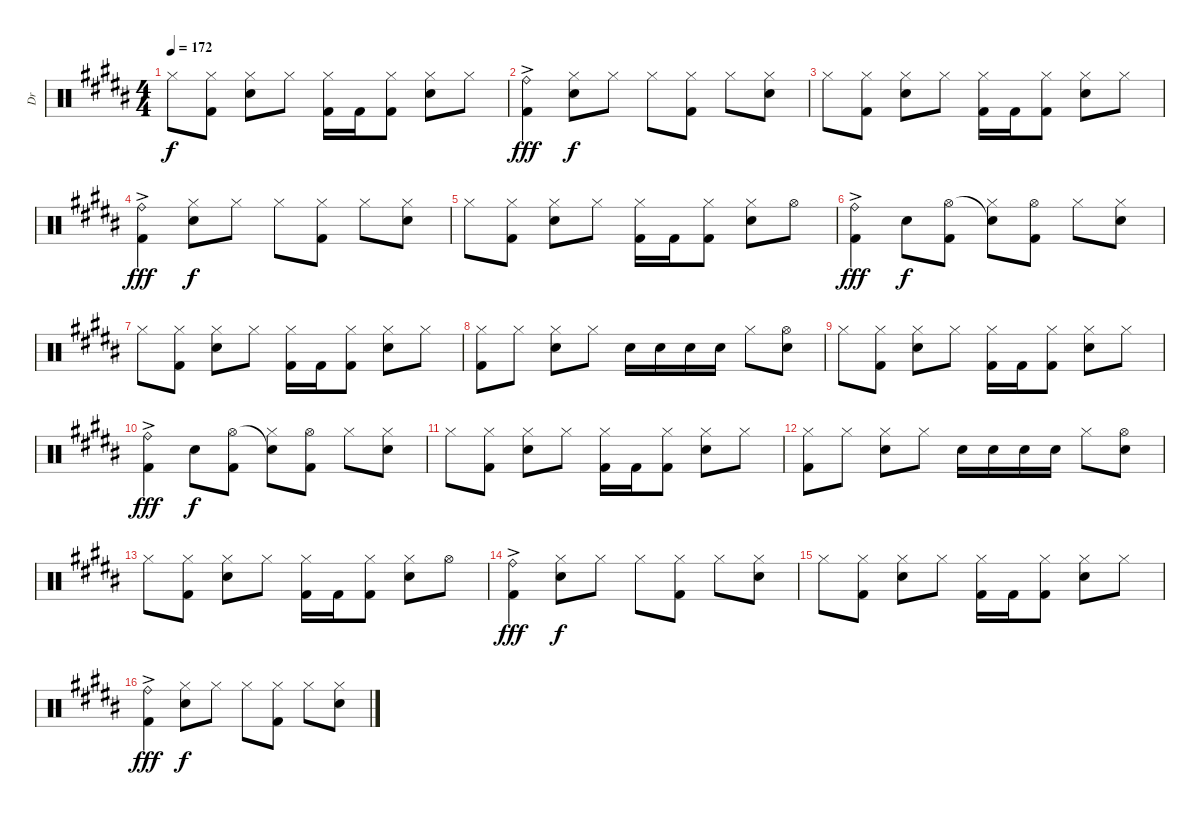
\track ("Dr" "Dr") {instrument percussion}
\staff {score}
\articulation defaults
\ts (4 4)
\tempo 172
\clef neutral
\ks b "Hi-Hat (closed)".8{dy f}
("Hi-Hat (closed)" "Kick (hit) 2").8 ("Hi-Hat (closed)" "Electric Snare (hit)").8 "Hi-Hat (closed)".8 ("Hi-Hat (closed)" "Kick (hit) 2").16 "Kick (hit) 2".16 ("Hi-Hat (closed)" "Kick (hit) 2").8 ("Hi-Hat (closed)" "Electric Snare (hit)").8 "Hi-Hat (closed)".8 |
("Ride (bell)"{ac} "Kick (hit) 2"{ac}).4{dy fff} ("Hi-Hat (closed)" "Electric Snare (hit)").8{dy f} "Hi-Hat (closed)".8 "Hi-Hat (closed)".8 ("Hi-Hat (closed)" "Kick (hit) 2").8 "Hi-Hat (closed)".8 ("Hi-Hat (closed)" "Electric Snare (hit)").8 |
"Hi-Hat (closed)".8 ("Hi-Hat (closed)" "Kick (hit) 2").8 ("Hi-Hat (closed)" "Electric Snare (hit)").8 "Hi-Hat (closed)".8 ("Hi-Hat (closed)" "Kick (hit) 2").16 "Kick (hit) 2".16 ("Hi-Hat (closed)" "Kick (hit) 2").8 ("Hi-Hat (closed)" "Electric Snare (hit)").8 "Hi-Hat (closed)".8 |
("Ride (bell)"{ac} "Kick (hit) 2"{ac}).4{dy fff} ("Hi-Hat (closed)" "Electric Snare (hit)").8{dy f} "Hi-Hat (closed)".8 "Hi-Hat (closed)".8 ("Hi-Hat (closed)" "Kick (hit) 2").8 "Hi-Hat (closed)".8 ("Hi-Hat (closed)" "Electric Snare (hit)").8 |
"Hi-Hat (closed)".8 ("Hi-Hat (closed)" "Kick (hit) 2").8 ("Hi-Hat (closed)" "Electric Snare (hit)").8 "Hi-Hat (closed)".8 ("Hi-Hat (closed)" "Kick (hit) 2").16 "Kick (hit) 2".16 ("Hi-Hat (closed)" "Kick (hit) 2").8 ("Hi-Hat (closed)" "Electric Snare (hit)").8 "Hi-Hat (open)".8 |
("Ride (bell)"{ac} "Kick (hit) 2"{ac}).4{dy fff} "Electric Snare (hit)".8{dy f} ("Hi-Hat (open)" "Kick (hit) 2").8 ("Snare (hit)"{t} "Hi-Hat (closed)").8 ("Hi-Hat (open)" "Kick (hit) 2").8 "Hi-Hat (closed)".8 ("Hi-Hat (closed)" "Electric Snare (hit)").8 |
"Hi-Hat (closed)".8 ("Hi-Hat (closed)" "Kick (hit) 2").8 ("Hi-Hat (closed)" "Electric Snare (hit)").8 "Hi-Hat (closed)".8 ("Hi-Hat (closed)" "Kick (hit) 2").16 "Kick (hit) 2".16 ("Hi-Hat (closed)" "Kick (hit) 2").8 ("Hi-Hat (closed)" "Electric Snare (hit)").8 "Hi-Hat (closed)".8 |
("Hi-Hat (closed)" "Kick (hit) 2").8 "Hi-Hat (closed)".8 ("Hi-Hat (closed)" "Electric Snare (hit)").8 "Hi-Hat (closed)".8 "Electric Snare (hit)".16 "Electric Snare (hit)".16 "Electric Snare (hit)".16 "Electric Snare (hit)".16 "Hi-Hat (closed)".8 ("Hi-Hat (open)" "Electric Snare (hit)").8 |
"Hi-Hat (closed)".8 ("Hi-Hat (closed)" "Kick (hit) 2").8 ("Hi-Hat (closed)" "Electric Snare (hit)").8 "Hi-Hat (closed)".8 ("Hi-Hat (closed)" "Kick (hit) 2").16 "Kick (hit) 2".16 ("Hi-Hat (closed)" "Kick (hit) 2").8 ("Hi-Hat (closed)" "Electric Snare (hit)").8 "Hi-Hat (closed)".8 |
("Ride (bell)"{ac} "Kick (hit) 2"{ac}).4{dy fff} "Electric Snare (hit)".8{dy f} ("Hi-Hat (open)" "Kick (hit) 2").8 ("Snare (hit)"{t} "Hi-Hat (closed)").8 ("Hi-Hat (open)" "Kick (hit) 2").8 "Hi-Hat (closed)".8 ("Hi-Hat (closed)" "Electric Snare (hit)").8 |
"Hi-Hat (closed)".8 ("Hi-Hat (closed)" "Kick (hit) 2").8 ("Hi-Hat (closed)" "Electric Snare (hit)").8 "Hi-Hat (closed)".8 ("Hi-Hat (closed)" "Kick (hit) 2").16 "Kick (hit) 2".16 ("Hi-Hat (closed)" "Kick (hit) 2").8 ("Hi-Hat (closed)" "Electric Snare (hit)").8 "Hi-Hat (closed)".8 |
("Hi-Hat (closed)" "Kick (hit) 2").8 "Hi-Hat (closed)".8 ("Hi-Hat (closed)" "Electric Snare (hit)").8 "Hi-Hat (closed)".8 "Electric Snare (hit)".16 "Electric Snare (hit)".16 "Electric Snare (hit)".16 "Electric Snare (hit)".16 "Hi-Hat (closed)".8 ("Hi-Hat (open)" "Electric Snare (hit)").8 |
"Hi-Hat (closed)".8 ("Hi-Hat (closed)" "Kick (hit) 2").8 ("Hi-Hat (closed)" "Electric Snare (hit)").8 "Hi-Hat (closed)".8 ("Hi-Hat (closed)" "Kick (hit) 2").16 "Kick (hit) 2".16 ("Hi-Hat (closed)" "Kick (hit) 2").8 ("Hi-Hat (closed)" "Electric Snare (hit)").8 "Hi-Hat (open)".8 |
("Ride (bell)"{ac} "Kick (hit) 2"{ac}).4{dy fff} ("Hi-Hat (closed)" "Electric Snare (hit)").8{dy f} "Hi-Hat (closed)".8 "Hi-Hat (closed)".8 ("Hi-Hat (closed)" "Kick (hit) 2").8 "Hi-Hat (closed)".8 ("Hi-Hat (closed)" "Electric Snare (hit)").8 |
"Hi-Hat (closed)".8 ("Hi-Hat (closed)" "Kick (hit) 2").8 ("Hi-Hat (closed)" "Electric Snare (hit)").8 "Hi-Hat (closed)".8 ("Hi-Hat (closed)" "Kick (hit) 2").16 "Kick (hit) 2".16 ("Hi-Hat (closed)" "Kick (hit) 2").8 ("Hi-Hat (closed)" "Electric Snare (hit)").8 "Hi-Hat (closed)".8 |
("Ride (bell)"{ac} "Kick (hit) 2"{ac}).4{dy fff} ("Hi-Hat (closed)" "Electric Snare (hit)").8{dy f} "Hi-Hat (closed)".8 "Hi-Hat (closed)".8 ("Hi-Hat (closed)" "Kick (hit) 2").8 "Hi-Hat (closed)".8 ("Hi-Hat (closed)" "Electric Snare (hit)").8
